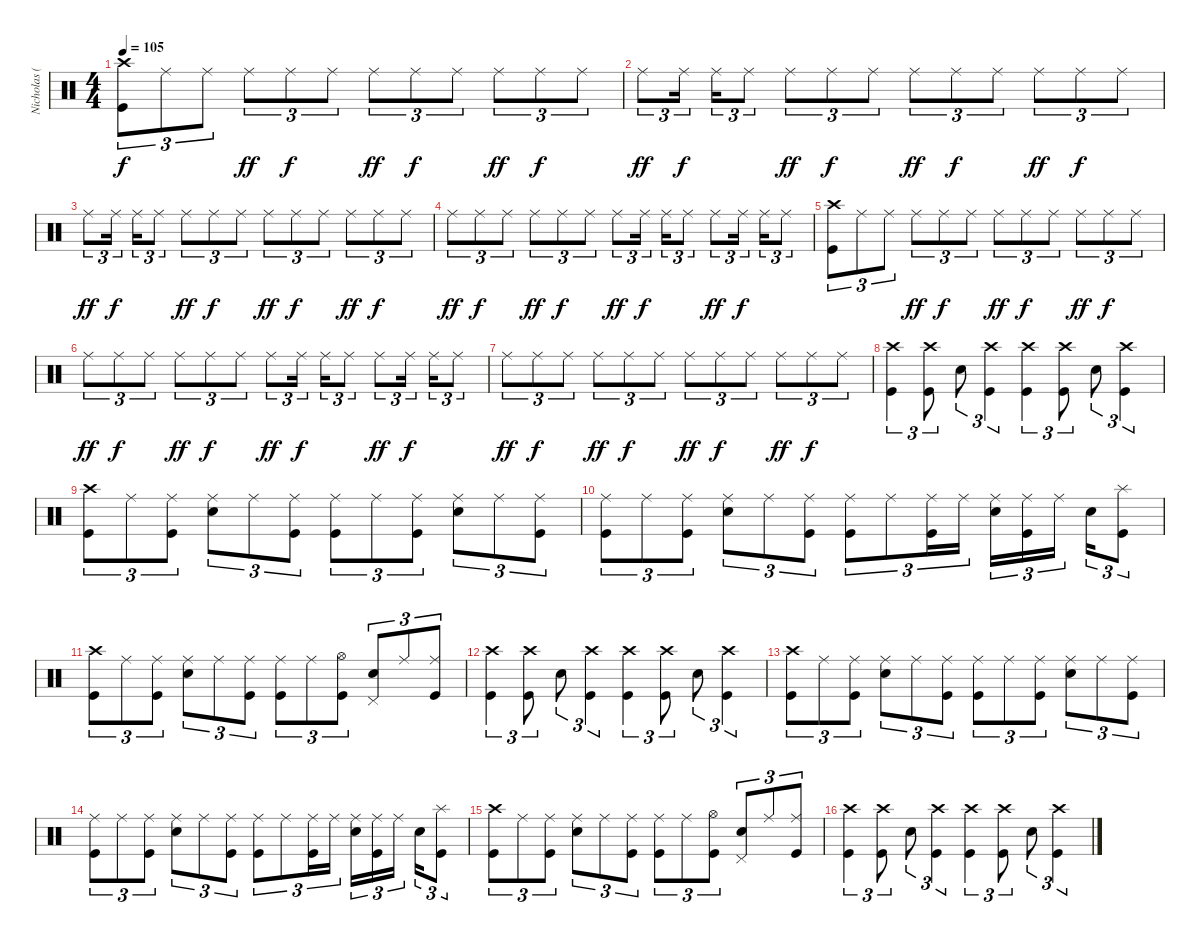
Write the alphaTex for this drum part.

\track ("Nicholas (Drums)" "Nicholas (") {instrument percussion}
\staff {score}
\articulation defaults
\ts (4 4)
\tempo 105
\clef neutral
\ks c
("Crash high (hit)" "Kick (hit)").8{tu (3 2) dy f} "Ride (middle)".8{tu (3 2)} "Ride (middle)".8{tu (3 2)} "Ride (middle)".8{tu (3 2) dy ff} "Ride (middle)".8{tu (3 2) dy f} "Ride (middle)".8{tu (3 2)} "Ride (middle)".8{tu (3 2) dy ff} "Ride (middle)".8{tu (3 2) dy f} "Ride (middle)".8{tu (3 2)} "Ride (middle)".8{tu (3 2) dy ff} "Ride (middle)".8{tu (3 2) dy f} "Ride (middle)".8{tu (3 2)} |
"Ride (middle)".8{tu (3 2) dy ff} "Ride (middle)".16{tu (3 2) dy f} "Ride (middle)".16{tu (3 2)} "Ride (middle)".8{tu (3 2)} "Ride (middle)".8{tu (3 2) dy ff} "Ride (middle)".8{tu (3 2) dy f} "Ride (middle)".8{tu (3 2)} "Ride (middle)".8{tu (3 2) dy ff} "Ride (middle)".8{tu (3 2) dy f} "Ride (middle)".8{tu (3 2)} "Ride (middle)".8{tu (3 2) dy ff} "Ride (middle)".8{tu (3 2) dy f} "Ride (middle)".8{tu (3 2)} |
"Ride (middle)".8{tu (3 2) dy ff} "Ride (middle)".16{tu (3 2) dy f} "Ride (middle)".16{tu (3 2)} "Ride (middle)".8{tu (3 2)} "Ride (middle)".8{tu (3 2) dy ff} "Ride (middle)".8{tu (3 2) dy f} "Ride (middle)".8{tu (3 2)} "Ride (middle)".8{tu (3 2) dy ff} "Ride (middle)".8{tu (3 2) dy f} "Ride (middle)".8{tu (3 2)} "Ride (middle)".8{tu (3 2) dy ff} "Ride (middle)".8{tu (3 2) dy f} "Ride (middle)".8{tu (3 2)} |
"Ride (middle)".8{tu (3 2) dy ff} "Ride (middle)".8{tu (3 2) dy f} "Ride (middle)".8{tu (3 2)} "Ride (middle)".8{tu (3 2) dy ff} "Ride (middle)".8{tu (3 2) dy f} "Ride (middle)".8{tu (3 2)} "Ride (middle)".8{tu (3 2) dy ff} "Ride (middle)".16{tu (3 2) dy f} "Ride (middle)".16{tu (3 2)} "Ride (middle)".8{tu (3 2)} "Ride (middle)".8{tu (3 2) dy ff} "Ride (middle)".16{tu (3 2) dy f} "Ride (middle)".16{tu (3 2)} "Ride (middle)".8{tu (3 2)} |
("Crash high (hit)" "Kick (hit)").8{tu (3 2)} "Ride (middle)".8{tu (3 2)} "Ride (middle)".8{tu (3 2)} "Ride (middle)".8{tu (3 2) dy ff} "Ride (middle)".8{tu (3 2) dy f} "Ride (middle)".8{tu (3 2)} "Ride (middle)".8{tu (3 2) dy ff} "Ride (middle)".8{tu (3 2) dy f} "Ride (middle)".8{tu (3 2)} "Ride (middle)".8{tu (3 2) dy ff} "Ride (middle)".8{tu (3 2) dy f} "Ride (middle)".8{tu (3 2)} |
"Ride (middle)".8{tu (3 2) dy ff} "Ride (middle)".8{tu (3 2) dy f} "Ride (middle)".8{tu (3 2)} "Ride (middle)".8{tu (3 2) dy ff} "Ride (middle)".8{tu (3 2) dy f} "Ride (middle)".8{tu (3 2)} "Ride (middle)".8{tu (3 2) dy ff} "Ride (middle)".16{tu (3 2) dy f} "Ride (middle)".16{tu (3 2)} "Ride (middle)".8{tu (3 2)} "Ride (middle)".8{tu (3 2) dy ff} "Ride (middle)".16{tu (3 2) dy f} "Ride (middle)".16{tu (3 2)} "Ride (middle)".8{tu (3 2)} |
"Ride (middle)".8{tu (3 2) dy ff} "Ride (middle)".8{tu (3 2) dy f} "Ride (middle)".8{tu (3 2)} "Ride (middle)".8{tu (3 2) dy ff} "Ride (middle)".8{tu (3 2) dy f} "Ride (middle)".8{tu (3 2)} "Ride (middle)".8{tu (3 2) dy ff} "Ride (middle)".8{tu (3 2) dy f} "Ride (middle)".8{tu (3 2)} "Ride (middle)".8{tu (3 2) dy ff} "Ride (middle)".8{tu (3 2) dy f} "Ride (middle)".8{tu (3 2)} |
("Crash high (hit)" "Kick (hit)").4{tu (3 2)} ("Crash high (hit)" "Kick (hit)").8{tu (3 2)} "Electric Snare (hit)".8{tu (3 2)} ("Crash high (hit)" "Kick (hit)").4{tu (3 2)} ("Crash high (hit)" "Kick (hit)").4{tu (3 2)} ("Crash high (hit)" "Kick (hit)").8{tu (3 2)} "Electric Snare (hit)".8{tu (3 2)} ("Crash high (hit)" "Kick (hit)").4{tu (3 2)} |
("Crash high (hit)" "Kick (hit)").8{tu (3 2)} "Ride (middle)".8{tu (3 2)} ("Ride (middle)" "Kick (hit)").8{tu (3 2)} ("Ride (middle)" "Electric Snare (hit)").8{tu (3 2)} "Ride (middle)".8{tu (3 2)} ("Ride (middle)" "Kick (hit)").8{tu (3 2)} ("Ride (middle)" "Kick (hit)").8{tu (3 2)} "Ride (middle)".8{tu (3 2)} ("Ride (middle)" "Kick (hit)").8{tu (3 2)} ("Ride (middle)" "Electric Snare (hit)").8{tu (3 2)} "Ride (middle)".8{tu (3 2)} ("Ride (middle)" "Kick (hit)").8{tu (3 2)} |
("Ride (middle)" "Kick (hit)").8{tu (3 2)} "Ride (middle)".8{tu (3 2)} ("Ride (middle)" "Kick (hit)").8{tu (3 2)} ("Ride (middle)" "Electric Snare (hit)").8{tu (3 2)} "Ride (middle)".8{tu (3 2)} ("Ride (middle)" "Kick (hit)").8{tu (3 2)} ("Ride (middle)" "Kick (hit)").8{tu (3 2)} "Ride (middle)".8{tu (3 2)} ("Ride (middle)" "Kick (hit)").16{tu (3 2)} "Ride (middle)".16{tu (3 2)} ("Ride (middle)" "Electric Snare (hit)").16{tu (3 2)} ("Ride (middle)" "Kick (hit)").16{tu (3 2)} "Ride (middle)".16{tu (3 2)} "Electric Snare (hit)".16{tu (3 2)} ("Splash (hit)" "Kick (hit)").8{tu (3 2)} |
("Crash high (hit)" "Kick (hit)").8{tu (3 2)} "Ride (middle)".8{tu (3 2)} ("Ride (middle)" "Kick (hit)").8{tu (3 2)} ("Ride (middle)" "Electric Snare (hit)").8{tu (3 2)} "Ride (middle)".8{tu (3 2)} ("Ride (middle)" "Kick (hit)").8{tu (3 2)} ("Ride (middle)" "Kick (hit)").8{tu (3 2)} "Ride (middle)".8{tu (3 2)} ("Hi-Hat (open)" "Kick (hit)").8{tu (3 2)} ("Pedal Hi-Hat (hit)" "Electric Snare (hit)").8{tu (3 2)} "Ride (middle)".8{tu (3 2)} ("Ride (middle)" "Kick (hit)").8{tu (3 2)} |
("Crash high (hit)" "Kick (hit)").4{tu (3 2)} ("Crash high (hit)" "Kick (hit)").8{tu (3 2)} "Electric Snare (hit)".8{tu (3 2)} ("Crash high (hit)" "Kick (hit)").4{tu (3 2)} ("Crash high (hit)" "Kick (hit)").4{tu (3 2)} ("Crash high (hit)" "Kick (hit)").8{tu (3 2)} "Electric Snare (hit)".8{tu (3 2)} ("Crash high (hit)" "Kick (hit)").4{tu (3 2)} |
("Crash high (hit)" "Kick (hit)").8{tu (3 2)} "Ride (middle)".8{tu (3 2)} ("Ride (middle)" "Kick (hit)").8{tu (3 2)} ("Ride (middle)" "Electric Snare (hit)").8{tu (3 2)} "Ride (middle)".8{tu (3 2)} ("Ride (middle)" "Kick (hit)").8{tu (3 2)} ("Ride (middle)" "Kick (hit)").8{tu (3 2)} "Ride (middle)".8{tu (3 2)} ("Ride (middle)" "Kick (hit)").8{tu (3 2)} ("Ride (middle)" "Electric Snare (hit)").8{tu (3 2)} "Ride (middle)".8{tu (3 2)} ("Ride (middle)" "Kick (hit)").8{tu (3 2)} |
("Ride (middle)" "Kick (hit)").8{tu (3 2)} "Ride (middle)".8{tu (3 2)} ("Ride (middle)" "Kick (hit)").8{tu (3 2)} ("Ride (middle)" "Electric Snare (hit)").8{tu (3 2)} "Ride (middle)".8{tu (3 2)} ("Ride (middle)" "Kick (hit)").8{tu (3 2)} ("Ride (middle)" "Kick (hit)").8{tu (3 2)} "Ride (middle)".8{tu (3 2)} ("Ride (middle)" "Kick (hit)").16{tu (3 2)} "Ride (middle)".16{tu (3 2)} ("Ride (middle)" "Electric Snare (hit)").16{tu (3 2)} ("Ride (middle)" "Kick (hit)").16{tu (3 2)} "Ride (middle)".16{tu (3 2)} "Electric Snare (hit)".16{tu (3 2)} ("Splash (hit)" "Kick (hit)").8{tu (3 2)} |
("Crash high (hit)" "Kick (hit)").8{tu (3 2)} "Ride (middle)".8{tu (3 2)} ("Ride (middle)" "Kick (hit)").8{tu (3 2)} ("Ride (middle)" "Electric Snare (hit)").8{tu (3 2)} "Ride (middle)".8{tu (3 2)} ("Ride (middle)" "Kick (hit)").8{tu (3 2)} ("Ride (middle)" "Kick (hit)").8{tu (3 2)} "Ride (middle)".8{tu (3 2)} ("Hi-Hat (open)" "Kick (hit)").8{tu (3 2)} ("Pedal Hi-Hat (hit)" "Electric Snare (hit)").8{tu (3 2)} "Ride (middle)".8{tu (3 2)} ("Ride (middle)" "Kick (hit)").8{tu (3 2)} |
("Crash high (hit)" "Kick (hit)").4{tu (3 2)} ("Crash high (hit)" "Kick (hit)").8{tu (3 2)} "Electric Snare (hit)".8{tu (3 2)} ("Crash high (hit)" "Kick (hit)").4{tu (3 2)} ("Crash high (hit)" "Kick (hit)").4{tu (3 2)} ("Crash high (hit)" "Kick (hit)").8{tu (3 2)} "Electric Snare (hit)".8{tu (3 2)} ("Crash high (hit)" "Kick (hit)").4{tu (3 2)}
